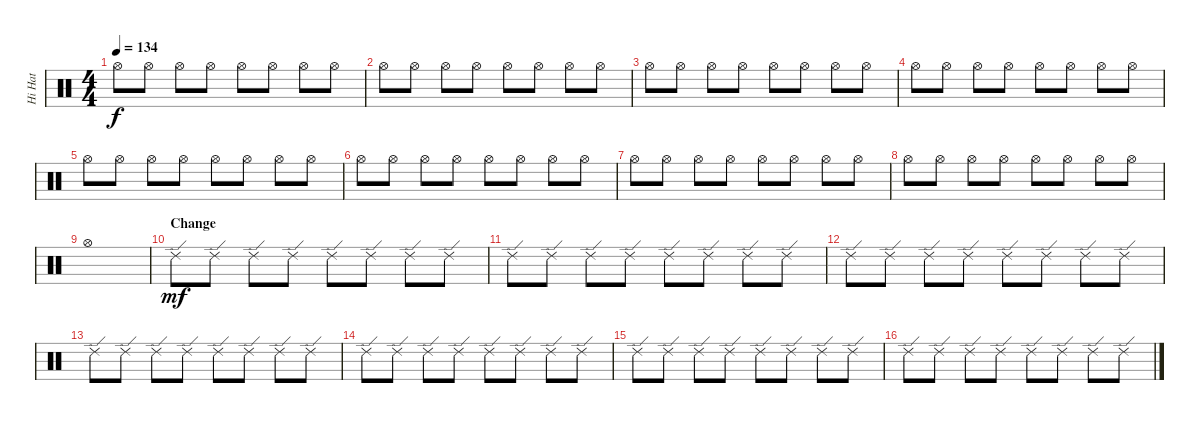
\track ("Hi Hat" "Hi Hat") {instrument percussion}
\staff {score}
\articulation defaults
\ts (4 4)
\tempo 134
\clef neutral
\ks c "Hi-Hat (open)".8{dy f} "Hi-Hat (open)".8 "Hi-Hat (open)".8 "Hi-Hat (open)".8 "Hi-Hat (open)".8 "Hi-Hat (open)".8 "Hi-Hat (open)".8 "Hi-Hat (open)".8
|
"Hi-Hat (open)".8 "Hi-Hat (open)".8 "Hi-Hat (open)".8 "Hi-Hat (open)".8 "Hi-Hat (open)".8 "Hi-Hat (open)".8 "Hi-Hat (open)".8 "Hi-Hat (open)".8 |
"Hi-Hat (open)".8 "Hi-Hat (open)".8 "Hi-Hat (open)".8 "Hi-Hat (open)".8 "Hi-Hat (open)".8 "Hi-Hat (open)".8 "Hi-Hat (open)".8 "Hi-Hat (open)".8 |
"Hi-Hat (open)".8 "Hi-Hat (open)".8 "Hi-Hat (open)".8 "Hi-Hat (open)".8 "Hi-Hat (open)".8 "Hi-Hat (open)".8 "Hi-Hat (open)".8 "Hi-Hat (open)".8 |
"Hi-Hat (open)".8 "Hi-Hat (open)".8 "Hi-Hat (open)".8 "Hi-Hat (open)".8 "Hi-Hat (open)".8 "Hi-Hat (open)".8 "Hi-Hat (open)".8 "Hi-Hat (open)".8 |
"Hi-Hat (open)".8 "Hi-Hat (open)".8 "Hi-Hat (open)".8 "Hi-Hat (open)".8 "Hi-Hat (open)".8 "Hi-Hat (open)".8 "Hi-Hat (open)".8 "Hi-Hat (open)".8 |
"Hi-Hat (open)".8 "Hi-Hat (open)".8 "Hi-Hat (open)".8 "Hi-Hat (open)".8 "Hi-Hat (open)".8 "Hi-Hat (open)".8 "Hi-Hat (open)".8 "Hi-Hat (open)".8 |
"Hi-Hat (open)".8 "Hi-Hat (open)".8 "Hi-Hat (open)".8 "Hi-Hat (open)".8 "Hi-Hat (open)".8 "Hi-Hat (open)".8 "Hi-Hat (open)".8 "Hi-Hat (open)".8 |
"Hi-Hat (open)".1 |
\section ("" "Change")
"Ride (edge) 2".8{dy mf} "Ride (edge) 2".8 "Ride (edge) 2".8 "Ride (edge) 2".8 "Ride (edge) 2".8 "Ride (edge) 2".8 "Ride (edge) 2".8 "Ride (edge) 2".8 |
"Ride (edge) 2".8 "Ride (edge) 2".8 "Ride (edge) 2".8 "Ride (edge) 2".8 "Ride (edge) 2".8 "Ride (edge) 2".8 "Ride (edge) 2".8 "Ride (edge) 2".8 |
"Ride (edge) 2".8 "Ride (edge) 2".8 "Ride (edge) 2".8 "Ride (edge) 2".8 "Ride (edge) 2".8 "Ride (edge) 2".8 "Ride (edge) 2".8 "Ride (edge) 2".8 |
"Ride (edge) 2".8 "Ride (edge) 2".8 "Ride (edge) 2".8 "Ride (edge) 2".8 "Ride (edge) 2".8 "Ride (edge) 2".8 "Ride (edge) 2".8 "Ride (edge) 2".8 |
"Ride (edge) 2".8 "Ride (edge) 2".8 "Ride (edge) 2".8 "Ride (edge) 2".8 "Ride (edge) 2".8 "Ride (edge) 2".8 "Ride (edge) 2".8 "Ride (edge) 2".8 |
"Ride (edge) 2".8 "Ride (edge) 2".8 "Ride (edge) 2".8 "Ride (edge) 2".8 "Ride (edge) 2".8 "Ride (edge) 2".8 "Ride (edge) 2".8 "Ride (edge) 2".8 |
"Ride (edge) 2".8 "Ride (edge) 2".8 "Ride (edge) 2".8 "Ride (edge) 2".8 "Ride (edge) 2".8 "Ride (edge) 2".8 "Ride (edge) 2".8 "Ride (edge) 2".8
